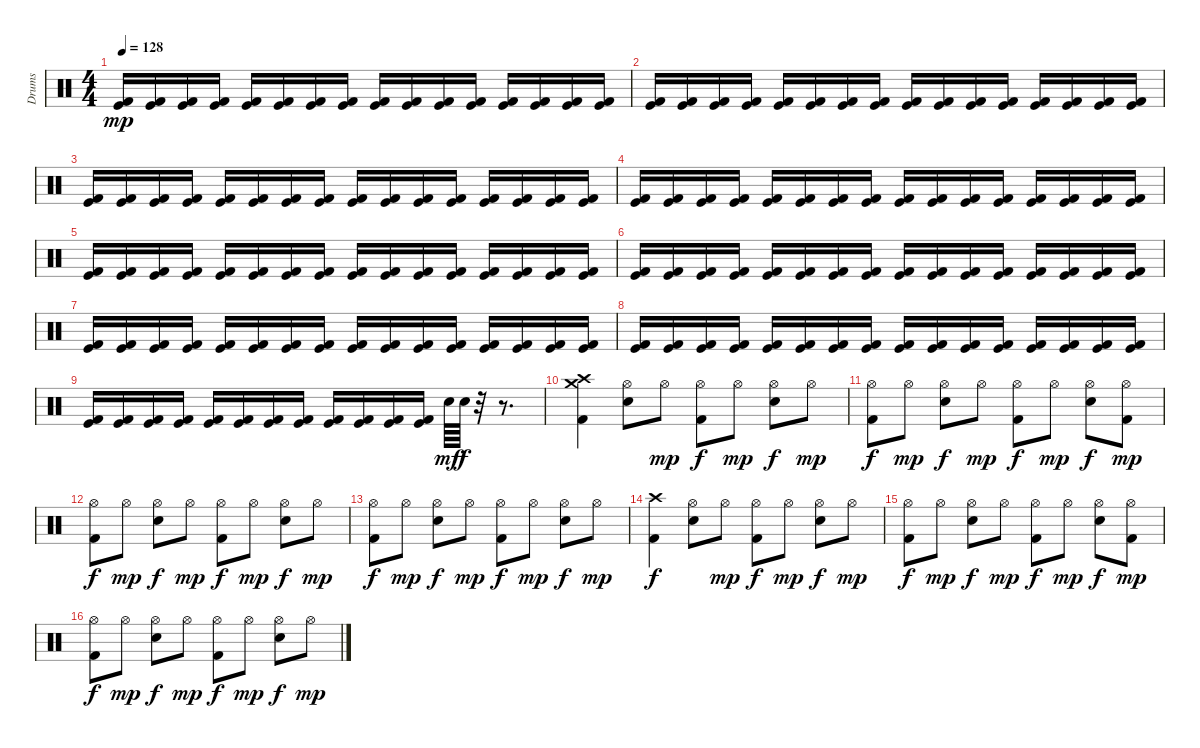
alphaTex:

\track ("Drums" "Drums") {instrument percussion}
\staff {score}
\articulation defaults
\ts (4 4)
\tempo 128
\clef neutral
\ks c
("Kick (hit)" "Kick (hit) 2").16{dy mp volume 10} ("Kick (hit)" "Kick (hit) 2").16 ("Kick (hit)" "Kick (hit) 2").16 ("Kick (hit)" "Kick (hit) 2").16 ("Kick (hit)" "Kick (hit) 2").16 ("Kick (hit)" "Kick (hit) 2").16 ("Kick (hit)" "Kick (hit) 2").16 ("Kick (hit)" "Kick (hit) 2").16 ("Kick (hit)" "Kick (hit) 2").16 ("Kick (hit)" "Kick (hit) 2").16 ("Kick (hit)" "Kick (hit) 2").16 ("Kick (hit)" "Kick (hit) 2").16 ("Kick (hit)" "Kick (hit) 2").16 ("Kick (hit)" "Kick (hit) 2").16 ("Kick (hit)" "Kick (hit) 2").16 ("Kick (hit)" "Kick (hit) 2").16 |
("Kick (hit)" "Kick (hit) 2").16{volume 10} ("Kick (hit)" "Kick (hit) 2").16 ("Kick (hit)" "Kick (hit) 2").16 ("Kick (hit)" "Kick (hit) 2").16 ("Kick (hit)" "Kick (hit) 2").16 ("Kick (hit)" "Kick (hit) 2").16 ("Kick (hit)" "Kick (hit) 2").16 ("Kick (hit)" "Kick (hit) 2").16 ("Kick (hit)" "Kick (hit) 2").16 ("Kick (hit)" "Kick (hit) 2").16 ("Kick (hit)" "Kick (hit) 2").16 ("Kick (hit)" "Kick (hit) 2").16 ("Kick (hit)" "Kick (hit) 2").16 ("Kick (hit)" "Kick (hit) 2").16 ("Kick (hit)" "Kick (hit) 2").16 ("Kick (hit)" "Kick (hit) 2").16 |
("Kick (hit)" "Kick (hit) 2").16{volume 10} ("Kick (hit)" "Kick (hit) 2").16 ("Kick (hit)" "Kick (hit) 2").16 ("Kick (hit)" "Kick (hit) 2").16 ("Kick (hit)" "Kick (hit) 2").16 ("Kick (hit)" "Kick (hit) 2").16 ("Kick (hit)" "Kick (hit) 2").16 ("Kick (hit)" "Kick (hit) 2").16 ("Kick (hit)" "Kick (hit) 2").16 ("Kick (hit)" "Kick (hit) 2").16 ("Kick (hit)" "Kick (hit) 2").16 ("Kick (hit)" "Kick (hit) 2").16 ("Kick (hit)" "Kick (hit) 2").16 ("Kick (hit)" "Kick (hit) 2").16 ("Kick (hit)" "Kick (hit) 2").16 ("Kick (hit)" "Kick (hit) 2").16 |
("Kick (hit)" "Kick (hit) 2").16{volume 10} ("Kick (hit)" "Kick (hit) 2").16 ("Kick (hit)" "Kick (hit) 2").16 ("Kick (hit)" "Kick (hit) 2").16 ("Kick (hit)" "Kick (hit) 2").16 ("Kick (hit)" "Kick (hit) 2").16 ("Kick (hit)" "Kick (hit) 2").16 ("Kick (hit)" "Kick (hit) 2").16 ("Kick (hit)" "Kick (hit) 2").16 ("Kick (hit)" "Kick (hit) 2").16 ("Kick (hit)" "Kick (hit) 2").16 ("Kick (hit)" "Kick (hit) 2").16 ("Kick (hit)" "Kick (hit) 2").16 ("Kick (hit)" "Kick (hit) 2").16 ("Kick (hit)" "Kick (hit) 2").16 ("Kick (hit)" "Kick (hit) 2").16 |
("Kick (hit)" "Kick (hit) 2").16{volume 10} ("Kick (hit)" "Kick (hit) 2").16 ("Kick (hit)" "Kick (hit) 2").16 ("Kick (hit)" "Kick (hit) 2").16 ("Kick (hit)" "Kick (hit) 2").16 ("Kick (hit)" "Kick (hit) 2").16 ("Kick (hit)" "Kick (hit) 2").16 ("Kick (hit)" "Kick (hit) 2").16 ("Kick (hit)" "Kick (hit) 2").16 ("Kick (hit)" "Kick (hit) 2").16 ("Kick (hit)" "Kick (hit) 2").16 ("Kick (hit)" "Kick (hit) 2").16 ("Kick (hit)" "Kick (hit) 2").16 ("Kick (hit)" "Kick (hit) 2").16 ("Kick (hit)" "Kick (hit) 2").16 ("Kick (hit)" "Kick (hit) 2").16 |
("Kick (hit)" "Kick (hit) 2").16{volume 10} ("Kick (hit)" "Kick (hit) 2").16 ("Kick (hit)" "Kick (hit) 2").16 ("Kick (hit)" "Kick (hit) 2").16 ("Kick (hit)" "Kick (hit) 2").16 ("Kick (hit)" "Kick (hit) 2").16 ("Kick (hit)" "Kick (hit) 2").16 ("Kick (hit)" "Kick (hit) 2").16 ("Kick (hit)" "Kick (hit) 2").16 ("Kick (hit)" "Kick (hit) 2").16 ("Kick (hit)" "Kick (hit) 2").16 ("Kick (hit)" "Kick (hit) 2").16 ("Kick (hit)" "Kick (hit) 2").16 ("Kick (hit)" "Kick (hit) 2").16 ("Kick (hit)" "Kick (hit) 2").16 ("Kick (hit)" "Kick (hit) 2").16 |
("Kick (hit)" "Kick (hit) 2").16{volume 10} ("Kick (hit)" "Kick (hit) 2").16 ("Kick (hit)" "Kick (hit) 2").16 ("Kick (hit)" "Kick (hit) 2").16 ("Kick (hit)" "Kick (hit) 2").16 ("Kick (hit)" "Kick (hit) 2").16 ("Kick (hit)" "Kick (hit) 2").16 ("Kick (hit)" "Kick (hit) 2").16 ("Kick (hit)" "Kick (hit) 2").16 ("Kick (hit)" "Kick (hit) 2").16 ("Kick (hit)" "Kick (hit) 2").16 ("Kick (hit)" "Kick (hit) 2").16 ("Kick (hit)" "Kick (hit) 2").16 ("Kick (hit)" "Kick (hit) 2").16 ("Kick (hit)" "Kick (hit) 2").16 ("Kick (hit)" "Kick (hit) 2").16 |
("Kick (hit)" "Kick (hit) 2").16{volume 10} ("Kick (hit)" "Kick (hit) 2").16 ("Kick (hit)" "Kick (hit) 2").16 ("Kick (hit)" "Kick (hit) 2").16 ("Kick (hit)" "Kick (hit) 2").16 ("Kick (hit)" "Kick (hit) 2").16 ("Kick (hit)" "Kick (hit) 2").16 ("Kick (hit)" "Kick (hit) 2").16 ("Kick (hit)" "Kick (hit) 2").16 ("Kick (hit)" "Kick (hit) 2").16 ("Kick (hit)" "Kick (hit) 2").16 ("Kick (hit)" "Kick (hit) 2").16 ("Kick (hit)" "Kick (hit) 2").16 ("Kick (hit)" "Kick (hit) 2").16 ("Kick (hit)" "Kick (hit) 2").16 ("Kick (hit)" "Kick (hit) 2").16 |
("Kick (hit)" "Kick (hit) 2").16{volume 10} ("Kick (hit)" "Kick (hit) 2").16 ("Kick (hit)" "Kick (hit) 2").16 ("Kick (hit)" "Kick (hit) 2").16 ("Kick (hit)" "Kick (hit) 2").16 ("Kick (hit)" "Kick (hit) 2").16 ("Kick (hit)" "Kick (hit) 2").16 ("Kick (hit)" "Kick (hit) 2").16 ("Kick (hit)" "Kick (hit) 2").16 ("Kick (hit)" "Kick (hit) 2").16 ("Kick (hit)" "Kick (hit) 2").16 ("Kick (hit)" "Kick (hit) 2").16 "Snare (hit) 2".64{dy mf volume 16 balance 8} "Snare (hit) 2".64{dy f} r.32 r.8{d} |
("Crash high (hit)" "Crash medium (hit)" "Kick (hit) 2").4 ("Hi-Hat (open)" "Snare (hit) 2").8 "Hi-Hat (open)".8{dy mp} ("Hi-Hat (open)" "Kick (hit) 2").8{dy f} "Hi-Hat (open)".8{dy mp} ("Hi-Hat (open)" "Snare (hit) 2").8{dy f} "Hi-Hat (open)".8{dy mp} |
("Hi-Hat (open)" "Kick (hit) 2").8{dy f} "Hi-Hat (open)".8{dy mp} ("Hi-Hat (open)" "Snare (hit) 2").8{dy f} "Hi-Hat (open)".8{dy mp} ("Hi-Hat (open)" "Kick (hit) 2").8{dy f} "Hi-Hat (open)".8{dy mp} ("Hi-Hat (open)" "Snare (hit) 2").8{dy f} ("Hi-Hat (open)" "Kick (hit) 2").8{dy mp} |
("Hi-Hat (open)" "Kick (hit) 2").8{dy f} "Hi-Hat (open)".8{dy mp} ("Hi-Hat (open)" "Snare (hit) 2").8{dy f} "Hi-Hat (open)".8{dy mp} ("Hi-Hat (open)" "Kick (hit) 2").8{dy f} "Hi-Hat (open)".8{dy mp} ("Hi-Hat (open)" "Snare (hit) 2").8{dy f} "Hi-Hat (open)".8{dy mp} |
("Hi-Hat (open)" "Kick (hit) 2").8{dy f} "Hi-Hat (open)".8{dy mp} ("Hi-Hat (open)" "Snare (hit) 2").8{dy f} "Hi-Hat (open)".8{dy mp} ("Hi-Hat (open)" "Kick (hit) 2").8{dy f} "Hi-Hat (open)".8{dy mp} ("Hi-Hat (open)" "Snare (hit) 2").8{dy f} "Hi-Hat (open)".8{dy mp} |
("Crash high (hit)" "Kick (hit) 2").4{dy f} ("Hi-Hat (open)" "Snare (hit) 2").8 "Hi-Hat (open)".8{dy mp} ("Hi-Hat (open)" "Kick (hit) 2").8{dy f} "Hi-Hat (open)".8{dy mp} ("Hi-Hat (open)" "Snare (hit) 2").8{dy f} "Hi-Hat (open)".8{dy mp} |
("Hi-Hat (open)" "Kick (hit) 2").8{dy f} "Hi-Hat (open)".8{dy mp} ("Hi-Hat (open)" "Snare (hit) 2").8{dy f} "Hi-Hat (open)".8{dy mp} ("Hi-Hat (open)" "Kick (hit) 2").8{dy f} "Hi-Hat (open)".8{dy mp} ("Hi-Hat (open)" "Snare (hit) 2").8{dy f} ("Hi-Hat (open)" "Kick (hit) 2").8{dy mp} |
("Hi-Hat (open)" "Kick (hit) 2").8{dy f} "Hi-Hat (open)".8{dy mp} ("Hi-Hat (open)" "Snare (hit) 2").8{dy f} "Hi-Hat (open)".8{dy mp} ("Hi-Hat (open)" "Kick (hit) 2").8{dy f} "Hi-Hat (open)".8{dy mp} ("Hi-Hat (open)" "Snare (hit) 2").8{dy f} "Hi-Hat (open)".8{dy mp}
